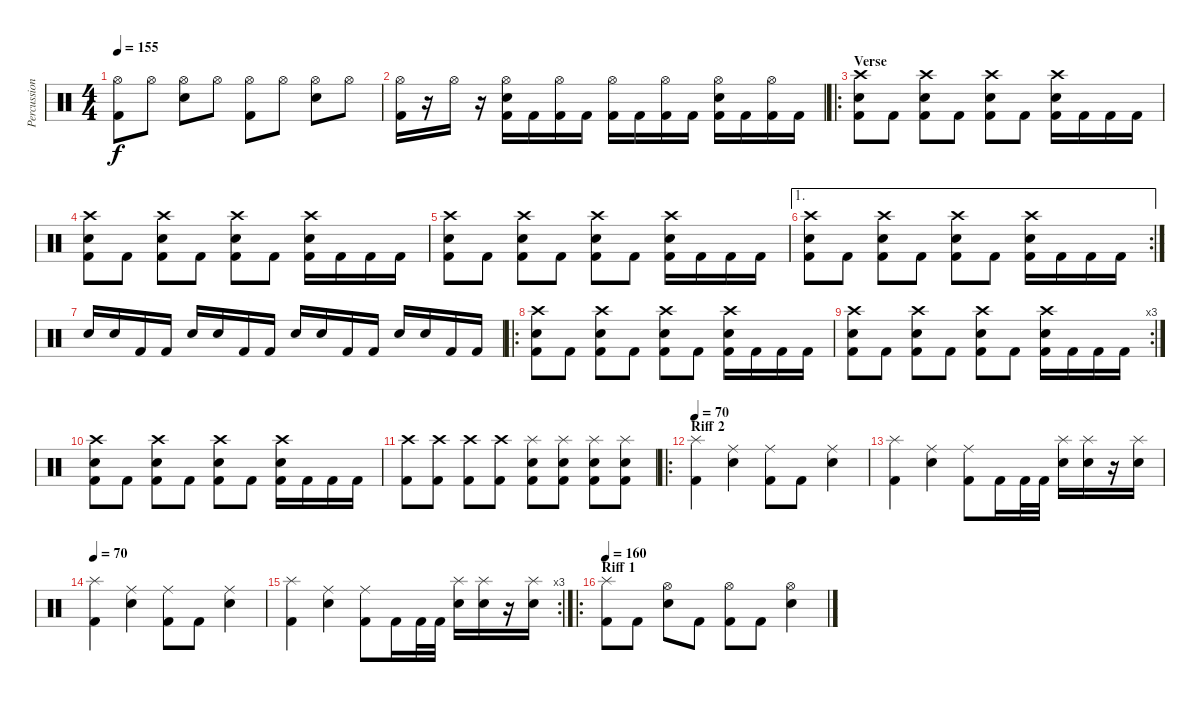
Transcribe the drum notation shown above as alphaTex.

\track ("Percussion" "Percussion") {instrument percussion}
\staff {score}
\articulation defaults
\ts (4 4)
\tempo 155
\clef neutral
\ks c
("Hi-Hat (open)" "Kick (hit) 2").8{dy f} "Hi-Hat (open)".8 ("Hi-Hat (open)" "Snare (hit) 2").8 "Hi-Hat (open)".8 ("Hi-Hat (open)" "Kick (hit) 2").8 "Hi-Hat (open)".8 ("Hi-Hat (open)" "Snare (hit) 2").8 "Hi-Hat (open)".8 |
("Hi-Hat (open)" "Kick (hit) 2").16 r.16 "Hi-Hat (open)".16 r.16 ("Hi-Hat (open)" "Snare (hit) 2" "Kick (hit) 2").16 "Kick (hit) 2".16 ("Hi-Hat (open)" "Kick (hit) 2").16 "Kick (hit) 2".16 ("Hi-Hat (open)" "Kick (hit) 2").16 "Kick (hit) 2".16 ("Hi-Hat (open)" "Kick (hit) 2").16 "Kick (hit) 2".16 ("Hi-Hat (open)" "Snare (hit) 2" "Kick (hit) 2").16 "Kick (hit) 2".16 ("Hi-Hat (open)" "Kick (hit) 2").16 "Kick (hit) 2".16 |
\ro
\section ("" "Verse")
("Crash high (hit)" "Snare (hit) 2" "Kick (hit) 2").8 "Kick (hit) 2".8 ("Crash high (hit)" "Snare (hit) 2" "Kick (hit) 2").8 "Kick (hit) 2".8 ("Crash high (hit)" "Snare (hit) 2" "Kick (hit) 2").8 "Kick (hit) 2".8 ("Crash high (hit)" "Snare (hit) 2" "Kick (hit) 2").16 "Kick (hit) 2".16 "Kick (hit) 2".16 "Kick (hit) 2".16 |
("Crash high (hit)" "Snare (hit) 2" "Kick (hit) 2").8 "Kick (hit) 2".8 ("Crash high (hit)" "Snare (hit) 2" "Kick (hit) 2").8 "Kick (hit) 2".8 ("Crash high (hit)" "Snare (hit) 2" "Kick (hit) 2").8 "Kick (hit) 2".8 ("Crash high (hit)" "Snare (hit) 2" "Kick (hit) 2").16 "Kick (hit) 2".16 "Kick (hit) 2".16 "Kick (hit) 2".16 |
("Crash high (hit)" "Snare (hit) 2" "Kick (hit) 2").8 "Kick (hit) 2".8 ("Crash high (hit)" "Snare (hit) 2" "Kick (hit) 2").8 "Kick (hit) 2".8 ("Crash high (hit)" "Snare (hit) 2" "Kick (hit) 2").8 "Kick (hit) 2".8 ("Crash high (hit)" "Snare (hit) 2" "Kick (hit) 2").16 "Kick (hit) 2".16 "Kick (hit) 2".16 "Kick (hit) 2".16 |
\ae 1
\rc 2
("Crash high (hit)" "Snare (hit) 2" "Kick (hit) 2").8 "Kick (hit) 2".8 ("Crash high (hit)" "Snare (hit) 2" "Kick (hit) 2").8 "Kick (hit) 2".8 ("Crash high (hit)" "Snare (hit) 2" "Kick (hit) 2").8 "Kick (hit) 2".8 ("Crash high (hit)" "Snare (hit) 2" "Kick (hit) 2").16 "Kick (hit) 2".16 "Kick (hit) 2".16 "Kick (hit) 2".16 |
"Snare (hit) 2".16 "Snare (hit) 2".16 "Kick (hit) 2".16 "Kick (hit) 2".16 "Snare (hit) 2".16 "Snare (hit) 2".16 "Kick (hit) 2".16 "Kick (hit) 2".16 "Snare (hit) 2".16 "Snare (hit) 2".16 "Kick (hit) 2".16 "Kick (hit) 2".16 "Snare (hit) 2".16 "Snare (hit) 2".16 "Kick (hit) 2".16 "Kick (hit) 2".16 |
\ro
("Crash high (hit)" "Snare (hit) 2" "Kick (hit) 2").8 "Kick (hit) 2".8 ("Crash high (hit)" "Snare (hit) 2" "Kick (hit) 2").8 "Kick (hit) 2".8 ("Crash high (hit)" "Snare (hit) 2" "Kick (hit) 2").8 "Kick (hit) 2".8 ("Crash high (hit)" "Snare (hit) 2" "Kick (hit) 2").16 "Kick (hit) 2".16 "Kick (hit) 2".16 "Kick (hit) 2".16 |
\rc 3
("Crash high (hit)" "Snare (hit) 2" "Kick (hit) 2").8 "Kick (hit) 2".8 ("Crash high (hit)" "Snare (hit) 2" "Kick (hit) 2").8 "Kick (hit) 2".8 ("Crash high (hit)" "Snare (hit) 2" "Kick (hit) 2").8 "Kick (hit) 2".8 ("Crash high (hit)" "Snare (hit) 2" "Kick (hit) 2").16 "Kick (hit) 2".16 "Kick (hit) 2".16 "Kick (hit) 2".16 |
("Crash high (hit)" "Snare (hit) 2" "Kick (hit) 2").8 "Kick (hit) 2".8 ("Crash high (hit)" "Snare (hit) 2" "Kick (hit) 2").8 "Kick (hit) 2".8 ("Crash high (hit)" "Snare (hit) 2" "Kick (hit) 2").8 "Kick (hit) 2".8 ("Crash high (hit)" "Snare (hit) 2" "Kick (hit) 2").16 "Kick (hit) 2".16 "Kick (hit) 2".16 "Kick (hit) 2".16 |
("Crash high (hit)" "Kick (hit) 2").8 ("Crash high (hit)" "Kick (hit) 2").8 ("Crash high (hit)" "Kick (hit) 2").8 ("Crash high (hit)" "Kick (hit) 2").8 ("Splash (hit)" "Snare (hit) 2" "Kick (hit) 2").8 ("Splash (hit)" "Snare (hit) 2" "Kick (hit) 2").8 ("Splash (hit)" "Snare (hit) 2" "Kick (hit) 2").8 ("Splash (hit)" "Snare (hit) 2" "Kick (hit) 2").8 |
\ro
\section ("" "Riff 2")
\tempo 65
\tempo 70
("Splash (hit)" "Kick (hit) 2").4 ("Ride (middle)" "Snare (hit) 2").4 ("Ride (middle)" "Kick (hit) 2").8 "Kick (hit) 2".8 ("Ride (middle)" "Snare (hit) 2").4 |
("Splash (hit)" "Kick (hit) 2").4 ("Ride (middle)" "Snare (hit) 2").4 ("Ride (middle)" "Kick (hit) 2").8 "Kick (hit) 2".16 "Kick (hit) 2".32 "Kick (hit) 2".32 ("Splash (hit)" "Snare (hit) 2").16 ("Splash (hit)" "Snare (hit) 2").16 r.16 ("Splash (hit)" "Snare (hit) 2").16 |
\tempo 70
("Splash (hit)" "Kick (hit) 2").4 ("Ride (middle)" "Snare (hit) 2").4 ("Ride (middle)" "Kick (hit) 2").8 "Kick (hit) 2".8 ("Ride (middle)" "Snare (hit) 2").4 |
\rc 3
("Splash (hit)" "Kick (hit) 2").4 ("Ride (middle)" "Snare (hit) 2").4 ("Ride (middle)" "Kick (hit) 2").8 "Kick (hit) 2".16 "Kick (hit) 2".32 "Kick (hit) 2".32 ("Splash (hit)" "Snare (hit) 2").16 ("Splash (hit)" "Snare (hit) 2").16 r.16 ("Splash (hit)" "Snare (hit) 2").16 |
\ro
\section ("" "Riff 1")
\tempo 160
("Splash (hit)" "Kick (hit) 2").8 "Kick (hit) 2".8 ("Hi-Hat (open)" "Snare (hit) 2").8 "Kick (hit) 2".8 ("Hi-Hat (open)" "Kick (hit) 2").8 "Kick (hit) 2".8 ("Hi-Hat (open)" "Snare (hit) 2").4
